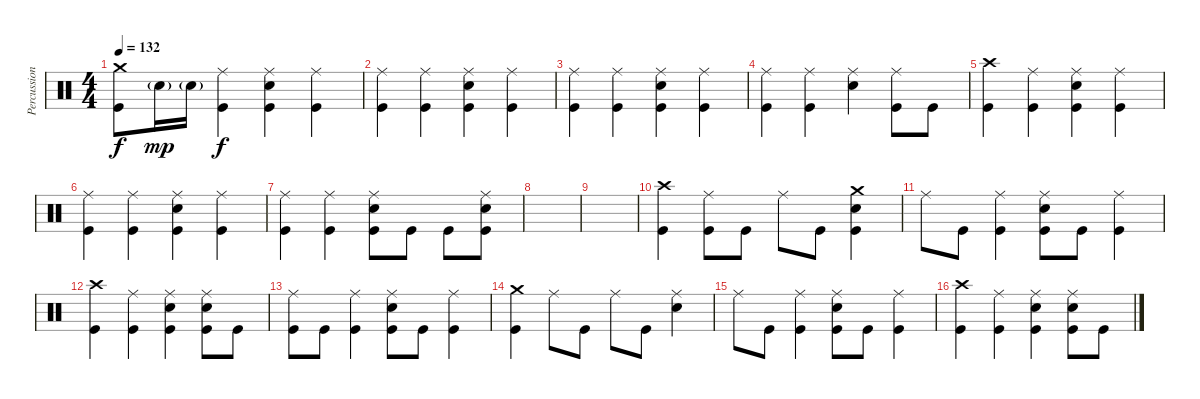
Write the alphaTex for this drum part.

\track ("Percussion" "Percussion") {instrument percussion}
\staff {score}
\articulation defaults
\ts (4 4)
\tempo 132
\clef neutral
\ks c
("Crash medium (hit)" "Kick (hit)").8{dy f} "Electric Snare (hit)"{g}.16{dy mp} "Electric Snare (hit)"{g}.16 ("Ride (middle)" "Kick (hit)").4{dy f} ("Ride (middle)" "Electric Snare (hit)" "Kick (hit)").4 ("Ride (middle)" "Kick (hit)").4 |
("Ride (middle)" "Kick (hit)").4 ("Ride (middle)" "Kick (hit)").4 ("Ride (middle)" "Electric Snare (hit)" "Kick (hit)").4 ("Ride (middle)" "Kick (hit)").4 |
("Ride (middle)" "Kick (hit)").4 ("Ride (middle)" "Kick (hit)").4 ("Ride (middle)" "Electric Snare (hit)" "Kick (hit)").4 ("Ride (middle)" "Kick (hit)").4 |
("Ride (middle)" "Kick (hit)").4 ("Ride (middle)" "Kick (hit)").4 ("Ride (middle)" "Electric Snare (hit)").4 ("Ride (middle)" "Kick (hit)").8 "Kick (hit)".8 |
("Crash high (hit)" "Kick (hit)").4 ("Ride (middle)" "Kick (hit)").4 ("Ride (middle)" "Electric Snare (hit)" "Kick (hit)").4 ("Ride (middle)" "Kick (hit)").4 |
("Ride (middle)" "Kick (hit)").4 ("Ride (middle)" "Kick (hit)").4 ("Ride (middle)" "Electric Snare (hit)" "Kick (hit)").4 ("Ride (middle)" "Kick (hit)").4 |
("Ride (middle)" "Kick (hit)").4 ("Ride (middle)" "Kick (hit)").4 ("Ride (middle)" "Electric Snare (hit)" "Kick (hit)").8 "Kick (hit)".8 "Kick (hit)".8 ("Ride (middle)" "Electric Snare (hit)" "Kick (hit)").8 |
|
|
("Crash high (hit)" "Kick (hit)").4 ("Ride (middle)" "Kick (hit)").8 "Kick (hit)".8 "Ride (middle)".8 "Kick (hit)".8 ("Crash medium (hit)" "Electric Snare (hit)" "Kick (hit)").4 |
"Ride (middle)".8 "Kick (hit)".8 ("Ride (middle)" "Kick (hit)").4 ("Ride (middle)" "Electric Snare (hit)" "Kick (hit)").8 "Kick (hit)".8 ("Ride (middle)" "Kick (hit)").4 |
("Crash high (hit)" "Kick (hit)").4 ("Ride (middle)" "Kick (hit)").4 ("Ride (middle)" "Electric Snare (hit)" "Kick (hit)").4 ("Ride (middle)" "Electric Snare (hit)" "Kick (hit)").8 "Kick (hit)".8 |
("Ride (middle)" "Kick (hit)").8 "Kick (hit)".8 ("Ride (middle)" "Kick (hit)").4 ("Ride (middle)" "Electric Snare (hit)" "Kick (hit)").8 "Kick (hit)".8 ("Ride (middle)" "Kick (hit)").4 |
("Crash medium (hit)" "Kick (hit)").4 "Ride (middle)".8 "Kick (hit)".8 "Ride (middle)".8 "Kick (hit)".8 ("Ride (middle)" "Electric Snare (hit)").4 |
"Ride (middle)".8 "Kick (hit)".8 ("Ride (middle)" "Kick (hit)").4 ("Ride (middle)" "Electric Snare (hit)" "Kick (hit)").8 "Kick (hit)".8 ("Ride (middle)" "Kick (hit)").4 |
("Crash high (hit)" "Kick (hit)").4 ("Ride (middle)" "Kick (hit)").4 ("Ride (middle)" "Electric Snare (hit)" "Kick (hit)").4 ("Ride (middle)" "Electric Snare (hit)" "Kick (hit)").8 "Kick (hit)".8
